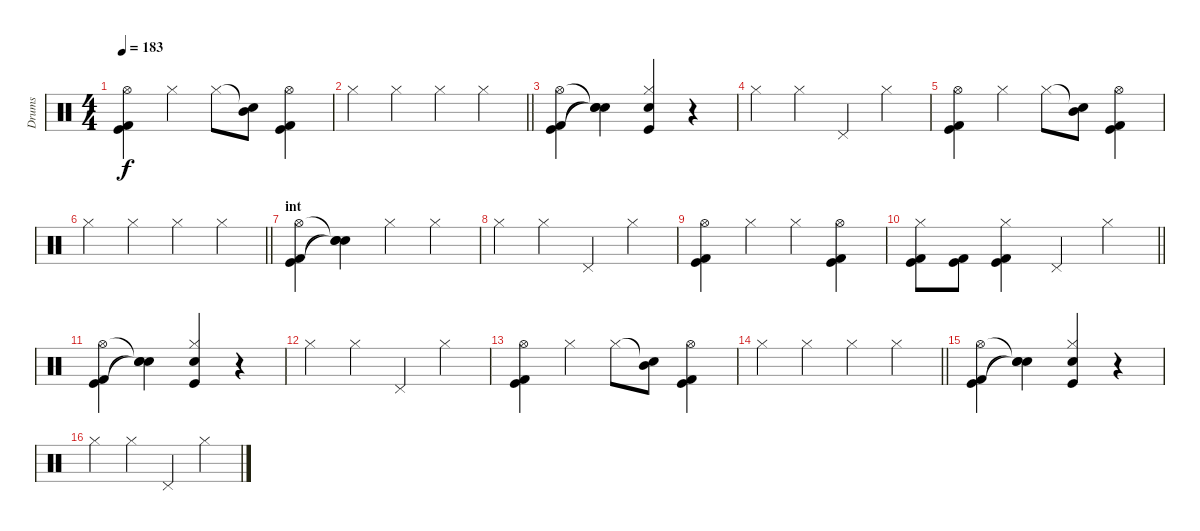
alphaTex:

\track ("Drums" "Drums") {instrument percussion}
\staff
\articulation defaults
\ts (4 4)
\tempo 183
\clef neutral
\ks c
("Hi-Hat (open)" "Kick (hit)" "Kick (hit) 2").4{dy f} "Hi-Hat (closed)".4 "Hi-Hat (closed)".8 ("Snare (hit)"{t} "Mid Tom (hit)").8 ("Hi-Hat (open)" "Kick (hit)" "Kick (hit) 2").4 |
\barLineRight lightlight "Hi-Hat (closed)".4 "Hi-Hat (closed)".4 "Hi-Hat (closed)".4 "Hi-Hat (closed)".4
|
("Hi-Hat (open)" "Kick (hit)" "Kick (hit) 2").4 ("Snare (hit)"{t} "Snare (hit)"{t} "Snare (hit)"{t}).4 ("Hi-Hat (closed)" "Electric Snare (hit)" "Kick (hit)").4 r.4 |
"Hi-Hat (closed)".4 "Hi-Hat (closed)".4 "Pedal Hi-Hat (hit)".4 "Hi-Hat (closed)".4 |
("Hi-Hat (open)" "Kick (hit)" "Kick (hit) 2").4 "Hi-Hat (closed)".4 "Hi-Hat (closed)".8 ("Snare (hit)"{t} "Mid Tom (hit)").8 ("Hi-Hat (open)" "Kick (hit)" "Kick (hit) 2").4 |
\barLineRight lightlight "Hi-Hat (closed)".4 "Hi-Hat (closed)".4 "Hi-Hat (closed)".4 "Hi-Hat (closed)".4
|
\section ("" "int")
("Hi-Hat (open)" "Kick (hit)" "Kick (hit) 2").4 ("Snare (hit)"{t} "Snare (hit)"{t} "Snare (hit)"{t}).4 "Hi-Hat (closed)".4 "Hi-Hat (closed)".4 |
"Hi-Hat (closed)".4 "Hi-Hat (closed)".4 "Pedal Hi-Hat (hit)".4 "Hi-Hat (closed)".4 |
("Hi-Hat (open)" "Kick (hit)" "Kick (hit) 2").4 "Hi-Hat (closed)".4 "Hi-Hat (closed)".4 ("Hi-Hat (open)" "Kick (hit)" "Kick (hit) 2").4 |
\barLineRight lightlight
("Hi-Hat (closed)" "Kick (hit)" "Kick (hit) 2").8 ("Kick (hit)" "Kick (hit) 2").8 ("Hi-Hat (closed)" "Kick (hit)" "Kick (hit) 2").4 "Pedal Hi-Hat (hit)".4 "Hi-Hat (closed)".4 |
("Hi-Hat (open)" "Kick (hit)" "Kick (hit) 2").4 ("Snare (hit)"{t} "Snare (hit)"{t} "Snare (hit)"{t}).4 ("Hi-Hat (closed)" "Electric Snare (hit)" "Kick (hit)").4 r.4 |
"Hi-Hat (closed)".4 "Hi-Hat (closed)".4 "Pedal Hi-Hat (hit)".4 "Hi-Hat (closed)".4 |
("Hi-Hat (open)" "Kick (hit)" "Kick (hit) 2").4 "Hi-Hat (closed)".4 "Hi-Hat (closed)".8 ("Snare (hit)"{t} "Mid Tom (hit)").8 ("Hi-Hat (open)" "Kick (hit)" "Kick (hit) 2").4 |
\barLineRight lightlight "Hi-Hat (closed)".4 "Hi-Hat (closed)".4 "Hi-Hat (closed)".4 "Hi-Hat (closed)".4
|
("Hi-Hat (open)" "Kick (hit)" "Kick (hit) 2").4 ("Snare (hit)"{t} "Snare (hit)"{t} "Snare (hit)"{t}).4 ("Hi-Hat (closed)" "Electric Snare (hit)" "Kick (hit)").4 r.4 |
"Hi-Hat (closed)".4 "Hi-Hat (closed)".4 "Pedal Hi-Hat (hit)".4 "Hi-Hat (closed)".4
